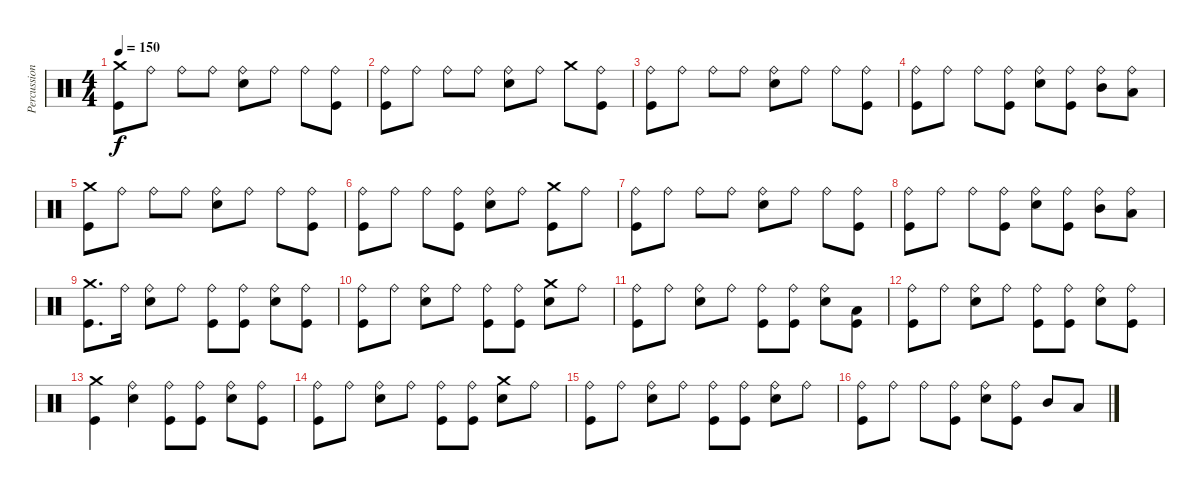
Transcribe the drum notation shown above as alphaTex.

\track ("Percussions" "Percussion") {instrument percussion}
\staff {score}
\articulation defaults
\ts (4 4)
\tempo 150
\clef neutral
\ks c
("Kick (hit)" "Crash medium (hit)").8{dy f} "Ride (bell)".8 "Ride (bell)".8 "Ride (bell)".8 ("Electric Snare (hit)" "Ride (bell)").8 "Ride (bell)".8 "Ride (bell)".8 ("Kick (hit)" "Ride (bell)").8 |
("Kick (hit)" "Ride (bell)").8 "Ride (bell)".8 "Ride (bell)".8 "Ride (bell)".8 ("Electric Snare (hit)" "Ride (bell)").8 "Ride (bell)".8 "Crash medium (hit)".8 ("Kick (hit)" "Ride (bell)").8 |
("Kick (hit)" "Ride (bell)").8 "Ride (bell)".8 "Ride (bell)".8 "Ride (bell)".8 ("Electric Snare (hit)" "Ride (bell)").8 "Ride (bell)".8 "Ride (bell)".8 ("Kick (hit)" "Ride (bell)").8 |
("Kick (hit)" "Ride (bell)").8 "Ride (bell)".8 "Ride (bell)".8 ("Kick (hit)" "Ride (bell)").8 ("Electric Snare (hit)" "Ride (bell)").8 ("Kick (hit)" "Ride (bell)").8 ("Mid Tom (hit)" "Ride (bell)").8 ("Low Tom (hit)" "Ride (bell)").8 |
("Kick (hit)" "Crash medium (hit)").8 "Ride (bell)".8 "Ride (bell)".8 "Ride (bell)".8 ("Electric Snare (hit)" "Ride (bell)").8 "Ride (bell)".8 "Ride (bell)".8 ("Kick (hit)" "Ride (bell)").8 |
("Kick (hit)" "Ride (bell)").8 "Ride (bell)".8 "Ride (bell)".8 ("Kick (hit)" "Ride (bell)").8 ("Electric Snare (hit)" "Ride (bell)").8 "Ride (bell)".8 ("Kick (hit)" "Crash medium (hit)").8 "Ride (bell)".8 |
("Kick (hit)" "Ride (bell)").8 "Ride (bell)".8 "Ride (bell)".8 "Ride (bell)".8 ("Electric Snare (hit)" "Ride (bell)").8 "Ride (bell)".8 "Ride (bell)".8 ("Kick (hit)" "Ride (bell)").8 |
("Kick (hit)" "Ride (bell)").8 "Ride (bell)".8 "Ride (bell)".8 ("Kick (hit)" "Ride (bell)").8 ("Electric Snare (hit)" "Ride (bell)").8 ("Kick (hit)" "Ride (bell)").8 ("Mid Tom (hit)" "Ride (bell)").8 ("Low Tom (hit)" "Ride (bell)").8 |
("Kick (hit)" "Crash medium (hit)").8{d} "Ride (bell)".16 ("Electric Snare (hit)" "Ride (bell)").8 "Ride (bell)".8 ("Kick (hit)" "Ride (bell)").8 ("Kick (hit)" "Ride (bell)").8 ("Electric Snare (hit)" "Ride (bell)").8 ("Kick (hit)" "Ride (bell)").8 |
("Kick (hit)" "Ride (bell)").8 "Ride (bell)".8 ("Electric Snare (hit)" "Ride (bell)").8 "Ride (bell)".8 ("Kick (hit)" "Ride (bell)").8 ("Kick (hit)" "Ride (bell)").8 ("Electric Snare (hit)" "Crash medium (hit)").8 "Ride (bell)".8 |
("Kick (hit)" "Ride (bell)").8 "Ride (bell)".8 ("Electric Snare (hit)" "Ride (bell)").8 "Ride (bell)".8 ("Kick (hit)" "Ride (bell)").8 ("Kick (hit)" "Ride (bell)").8 ("Electric Snare (hit)" "Ride (bell)").8 ("Kick (hit)" "Low Floor Tom (hit)").8 |
("Kick (hit)" "Ride (bell)").8 "Ride (bell)".8 ("Electric Snare (hit)" "Ride (bell)").8 "Ride (bell)".8 ("Kick (hit)" "Ride (bell)").8 ("Kick (hit)" "Ride (bell)").8 ("Electric Snare (hit)" "Ride (bell)").8 ("Kick (hit)" "Ride (bell)").8 |
("Kick (hit)" "Crash medium (hit)").4 ("Electric Snare (hit)" "Ride (bell)").4 ("Kick (hit)" "Ride (bell)").8 ("Kick (hit)" "Ride (bell)").8 ("Electric Snare (hit)" "Ride (bell)").8 ("Kick (hit)" "Ride (bell)").8 |
("Kick (hit)" "Ride (bell)").8 "Ride (bell)".8 ("Electric Snare (hit)" "Ride (bell)").8 "Ride (bell)".8 ("Kick (hit)" "Ride (bell)").8 ("Kick (hit)" "Ride (bell)").8 ("Electric Snare (hit)" "Crash medium (hit)").8 "Ride (bell)".8 |
("Kick (hit)" "Ride (bell)").8 "Ride (bell)".8 ("Electric Snare (hit)" "Ride (bell)").8 "Ride (bell)".8 ("Kick (hit)" "Ride (bell)").8 ("Kick (hit)" "Ride (bell)").8 ("Electric Snare (hit)" "Ride (bell)").8 "Ride (bell)".8 |
("Kick (hit)" "Ride (bell)").8 "Ride (bell)".8 "Ride (bell)".8 ("Kick (hit)" "Ride (bell)").8 ("Electric Snare (hit)" "Ride (bell)").8 ("Kick (hit)" "Ride (bell)").8 "Mid Tom (hit)".8 "Low Tom (hit)".8
